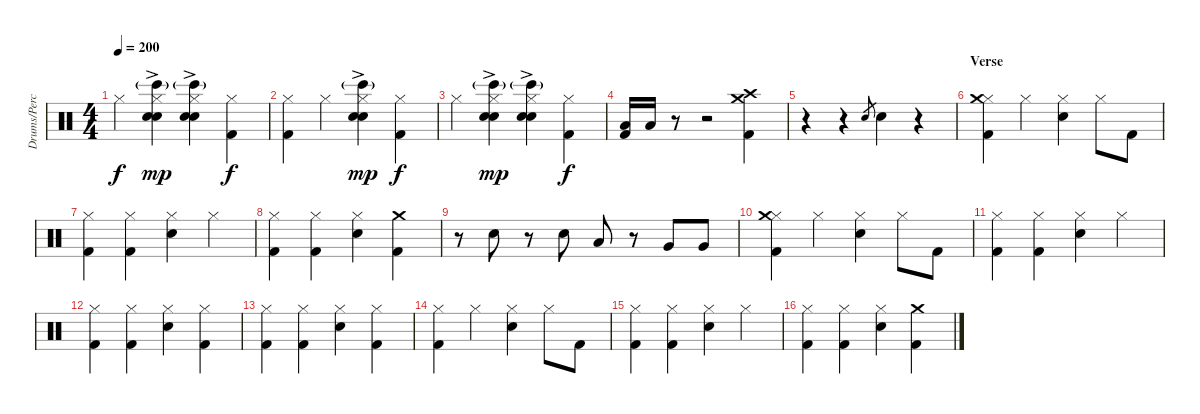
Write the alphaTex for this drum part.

\track ("Drums/Percussion" "Drums/Perc") {instrument percussion}
\staff {score}
\articulation defaults
\ts (4 4)
\tempo 200
\clef neutral
\ks c "Hi-Hat (closed)".4{dy f}
("Snare (hit) 2" "Hi-Hat (closed)" "Hand Clap (hit)"{ac} "Bongo High (hit)"{g}).4{dy mp} ("Snare (hit) 2" "Hi-Hat (closed)" "Hand Clap (hit)"{ac} "Bongo High (hit)"{g}).4 ("Kick (hit) 2" "Hi-Hat (closed)").4{dy f} |
("Kick (hit) 2" "Hi-Hat (closed)").4 "Hi-Hat (closed)".4 ("Snare (hit) 2" "Hi-Hat (closed)" "Hand Clap (hit)"{ac} "Bongo High (hit)"{g}).4{dy mp} ("Kick (hit) 2" "Hi-Hat (closed)").4{dy f} |
"Hi-Hat (closed)".4 ("Snare (hit) 2" "Hi-Hat (closed)" "Hand Clap (hit)"{ac} "Bongo High (hit)"{g}).4{dy mp} ("Snare (hit) 2" "Hi-Hat (closed)" "Hand Clap (hit)"{ac} "Bongo High (hit)"{g}).4 ("Kick (hit) 2" "Hi-Hat (closed)").4{dy f} |
("Kick (hit) 2" "Low Floor Tom (hit)").16 "Low Floor Tom (hit)".16 r.8 r.2 ("Kick (hit) 2" "Crash high (hit)" "Crash medium (hit)").4 |
r.4 r.4 "Snare (hit) 2".8{gr} "Snare (hit) 2".4 r.4 |
\section ("" "Verse")
("Kick (hit) 2" "Hi-Hat (closed)" "Crash medium (hit)").4 "Hi-Hat (closed)".4 ("Snare (hit) 2" "Hi-Hat (closed)").4 "Hi-Hat (closed)".8 "Kick (hit) 2".8 |
("Kick (hit) 2" "Hi-Hat (closed)").4 ("Kick (hit) 2" "Hi-Hat (closed)").4 ("Snare (hit) 2" "Hi-Hat (closed)").4 "Hi-Hat (closed)".4 |
("Kick (hit) 2" "Hi-Hat (closed)").4 ("Kick (hit) 2" "Hi-Hat (closed)").4 ("Snare (hit) 2" "Hi-Hat (closed)").4 ("Kick (hit) 2" "Crash medium (hit)").4 |
r.8 "Snare (hit) 2".8 r.8 "Snare (hit) 2".8 "Low Tom (hit)".8 r.8 "Very Low Tom (hit)".8 "Very Low Tom (hit)".8 |
("Kick (hit) 2" "Hi-Hat (closed)" "Crash medium (hit)").4 "Hi-Hat (closed)".4 ("Snare (hit) 2" "Hi-Hat (closed)").4 "Hi-Hat (closed)".8 "Kick (hit) 2".8 |
("Kick (hit) 2" "Hi-Hat (closed)").4 ("Kick (hit) 2" "Hi-Hat (closed)").4 ("Snare (hit) 2" "Hi-Hat (closed)").4 "Hi-Hat (closed)".4 |
("Kick (hit) 2" "Hi-Hat (closed)").4 ("Kick (hit) 2" "Hi-Hat (closed)").4 ("Snare (hit) 2" "Hi-Hat (closed)").4 ("Kick (hit) 2" "Hi-Hat (closed)").4 |
("Kick (hit) 2" "Hi-Hat (closed)").4 ("Kick (hit) 2" "Hi-Hat (closed)").4 ("Snare (hit) 2" "Hi-Hat (closed)").4 ("Kick (hit) 2" "Hi-Hat (closed)").4 |
("Kick (hit) 2" "Hi-Hat (closed)").4 "Hi-Hat (closed)".4 ("Snare (hit) 2" "Hi-Hat (closed)").4 "Hi-Hat (closed)".8 "Kick (hit) 2".8 |
("Kick (hit) 2" "Hi-Hat (closed)").4 ("Kick (hit) 2" "Hi-Hat (closed)").4 ("Snare (hit) 2" "Hi-Hat (closed)").4 "Hi-Hat (closed)".4 |
("Kick (hit) 2" "Hi-Hat (closed)").4 ("Kick (hit) 2" "Hi-Hat (closed)").4 ("Snare (hit) 2" "Hi-Hat (closed)").4 ("Kick (hit) 2" "Crash medium (hit)").4
